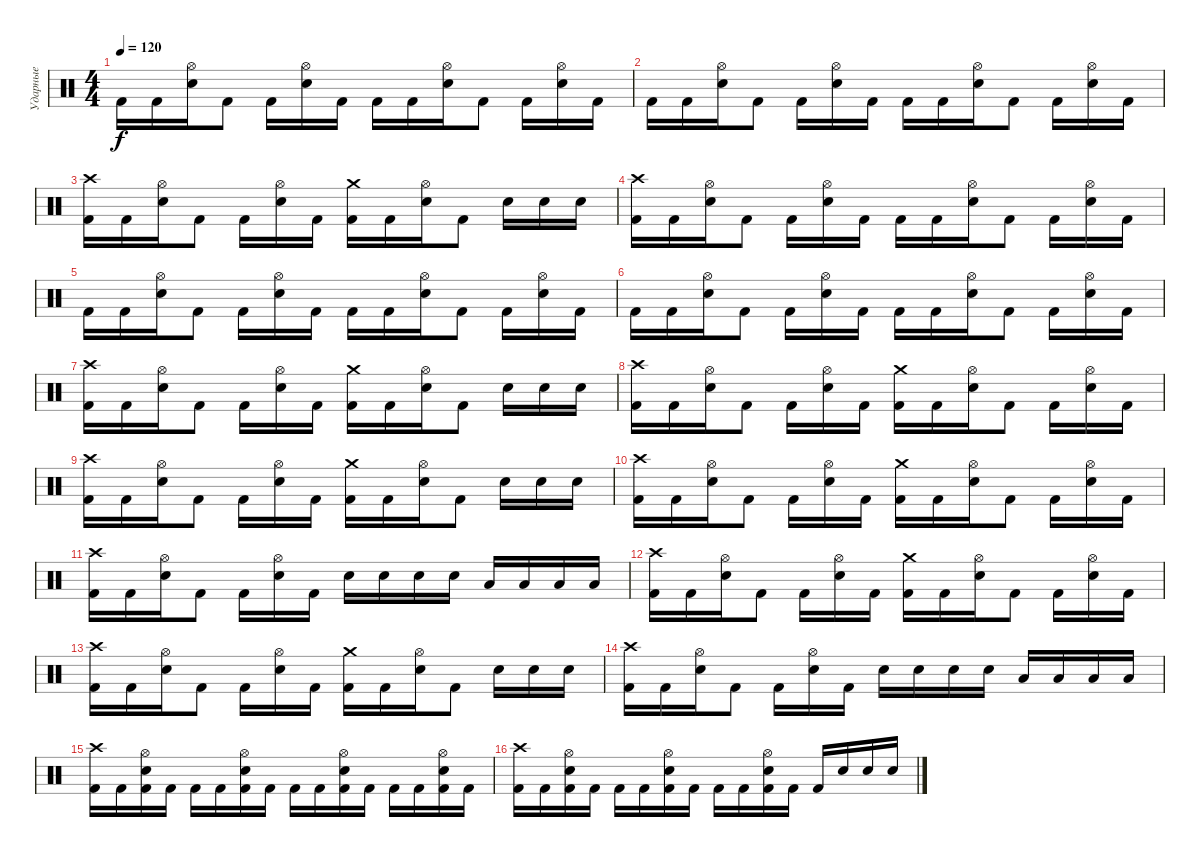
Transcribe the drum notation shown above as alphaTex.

\track ("Ударные" "Ударные") {instrument percussion}
\staff {score}
\articulation defaults
\ts (4 4)
\tempo 120
\clef neutral
\ks c "Kick (hit) 2".16{dy f} "Kick (hit) 2".16
("Electric Snare (hit)" "Hi-Hat (open)").16 "Kick (hit) 2".8 "Kick (hit) 2".16 ("Electric Snare (hit)" "Hi-Hat (open)").16 "Kick (hit) 2".16 "Kick (hit) 2".16 "Kick (hit) 2".16 ("Electric Snare (hit)" "Hi-Hat (open)").16 "Kick (hit) 2".8 "Kick (hit) 2".16 ("Electric Snare (hit)" "Hi-Hat (open)").16 "Kick (hit) 2".16 |
"Kick (hit) 2".16 "Kick (hit) 2".16 ("Electric Snare (hit)" "Hi-Hat (open)").16 "Kick (hit) 2".8 "Kick (hit) 2".16 ("Electric Snare (hit)" "Hi-Hat (open)").16 "Kick (hit) 2".16 "Kick (hit) 2".16 "Kick (hit) 2".16 ("Electric Snare (hit)" "Hi-Hat (open)").16 "Kick (hit) 2".8 "Kick (hit) 2".16 ("Electric Snare (hit)" "Hi-Hat (open)").16 "Kick (hit) 2".16 |
("Kick (hit) 2" "Crash high (hit)").16 "Kick (hit) 2".16 ("Electric Snare (hit)" "Hi-Hat (open)").16 "Kick (hit) 2".8 "Kick (hit) 2".16 ("Electric Snare (hit)" "Hi-Hat (open)").16 "Kick (hit) 2".16 ("Kick (hit) 2" "Crash medium (hit)").16 "Kick (hit) 2".16 ("Electric Snare (hit)" "Hi-Hat (open)").16 "Kick (hit) 2".8 "Electric Snare (hit)".16 "Electric Snare (hit)".16 "Electric Snare (hit)".16 |
("Kick (hit) 2" "Crash high (hit)").16 "Kick (hit) 2".16 ("Electric Snare (hit)" "Hi-Hat (open)").16 "Kick (hit) 2".8 "Kick (hit) 2".16 ("Electric Snare (hit)" "Hi-Hat (open)").16 "Kick (hit) 2".16 "Kick (hit) 2".16 "Kick (hit) 2".16 ("Electric Snare (hit)" "Hi-Hat (open)").16 "Kick (hit) 2".8 "Kick (hit) 2".16 ("Electric Snare (hit)" "Hi-Hat (open)").16 "Kick (hit) 2".16 |
"Kick (hit) 2".16 "Kick (hit) 2".16 ("Electric Snare (hit)" "Hi-Hat (open)").16 "Kick (hit) 2".8 "Kick (hit) 2".16 ("Electric Snare (hit)" "Hi-Hat (open)").16 "Kick (hit) 2".16 "Kick (hit) 2".16 "Kick (hit) 2".16 ("Electric Snare (hit)" "Hi-Hat (open)").16 "Kick (hit) 2".8 "Kick (hit) 2".16 ("Electric Snare (hit)" "Hi-Hat (open)").16 "Kick (hit) 2".16 |
"Kick (hit) 2".16 "Kick (hit) 2".16 ("Electric Snare (hit)" "Hi-Hat (open)").16 "Kick (hit) 2".8 "Kick (hit) 2".16 ("Electric Snare (hit)" "Hi-Hat (open)").16 "Kick (hit) 2".16 "Kick (hit) 2".16 "Kick (hit) 2".16 ("Electric Snare (hit)" "Hi-Hat (open)").16 "Kick (hit) 2".8 "Kick (hit) 2".16 ("Electric Snare (hit)" "Hi-Hat (open)").16 "Kick (hit) 2".16 |
("Kick (hit) 2" "Crash high (hit)").16 "Kick (hit) 2".16 ("Electric Snare (hit)" "Hi-Hat (open)").16 "Kick (hit) 2".8 "Kick (hit) 2".16 ("Electric Snare (hit)" "Hi-Hat (open)").16 "Kick (hit) 2".16 ("Kick (hit) 2" "Crash medium (hit)").16 "Kick (hit) 2".16 ("Electric Snare (hit)" "Hi-Hat (open)").16 "Kick (hit) 2".8 "Electric Snare (hit)".16 "Electric Snare (hit)".16 "Electric Snare (hit)".16 |
("Kick (hit) 2" "Crash high (hit)").16 "Kick (hit) 2".16 ("Electric Snare (hit)" "Hi-Hat (open)").16 "Kick (hit) 2".8 "Kick (hit) 2".16 ("Electric Snare (hit)" "Hi-Hat (open)").16 "Kick (hit) 2".16 ("Kick (hit) 2" "Crash medium (hit)").16 "Kick (hit) 2".16 ("Electric Snare (hit)" "Hi-Hat (open)").16 "Kick (hit) 2".8 "Kick (hit) 2".16 ("Electric Snare (hit)" "Hi-Hat (open)").16 "Kick (hit) 2".16 |
("Kick (hit) 2" "Crash high (hit)").16 "Kick (hit) 2".16 ("Electric Snare (hit)" "Hi-Hat (open)").16 "Kick (hit) 2".8 "Kick (hit) 2".16 ("Electric Snare (hit)" "Hi-Hat (open)").16 "Kick (hit) 2".16 ("Kick (hit) 2" "Crash medium (hit)").16 "Kick (hit) 2".16 ("Electric Snare (hit)" "Hi-Hat (open)").16 "Kick (hit) 2".8 "Electric Snare (hit)".16 "Electric Snare (hit)".16 "Electric Snare (hit)".16 |
("Kick (hit) 2" "Crash high (hit)").16 "Kick (hit) 2".16 ("Electric Snare (hit)" "Hi-Hat (open)").16 "Kick (hit) 2".8 "Kick (hit) 2".16 ("Electric Snare (hit)" "Hi-Hat (open)").16 "Kick (hit) 2".16 ("Kick (hit) 2" "Crash medium (hit)").16 "Kick (hit) 2".16 ("Electric Snare (hit)" "Hi-Hat (open)").16 "Kick (hit) 2".8 "Kick (hit) 2".16 ("Electric Snare (hit)" "Hi-Hat (open)").16 "Kick (hit) 2".16 |
("Kick (hit) 2" "Crash high (hit)").16 "Kick (hit) 2".16 ("Electric Snare (hit)" "Hi-Hat (open)").16 "Kick (hit) 2".8 "Kick (hit) 2".16 ("Electric Snare (hit)" "Hi-Hat (open)").16 "Kick (hit) 2".16 "Electric Snare (hit)".16 "Electric Snare (hit)".16 "Electric Snare (hit)".16 "Electric Snare (hit)".16 "Low Tom (hit)".16 "Low Tom (hit)".16 "Low Tom (hit)".16 "Low Tom (hit)".16 |
("Kick (hit) 2" "Crash high (hit)").16 "Kick (hit) 2".16 ("Electric Snare (hit)" "Hi-Hat (open)").16 "Kick (hit) 2".8 "Kick (hit) 2".16 ("Electric Snare (hit)" "Hi-Hat (open)").16 "Kick (hit) 2".16 ("Kick (hit) 2" "Crash medium (hit)").16 "Kick (hit) 2".16 ("Electric Snare (hit)" "Hi-Hat (open)").16 "Kick (hit) 2".8 "Kick (hit) 2".16 ("Electric Snare (hit)" "Hi-Hat (open)").16 "Kick (hit) 2".16 |
("Kick (hit) 2" "Crash high (hit)").16 "Kick (hit) 2".16 ("Electric Snare (hit)" "Hi-Hat (open)").16 "Kick (hit) 2".8 "Kick (hit) 2".16 ("Electric Snare (hit)" "Hi-Hat (open)").16 "Kick (hit) 2".16 ("Kick (hit) 2" "Crash medium (hit)").16 "Kick (hit) 2".16 ("Electric Snare (hit)" "Hi-Hat (open)").16 "Kick (hit) 2".8 "Electric Snare (hit)".16 "Electric Snare (hit)".16 "Electric Snare (hit)".16 |
("Kick (hit) 2" "Crash high (hit)").16 "Kick (hit) 2".16 ("Electric Snare (hit)" "Hi-Hat (open)").16 "Kick (hit) 2".8 "Kick (hit) 2".16 ("Electric Snare (hit)" "Hi-Hat (open)").16 "Kick (hit) 2".16 "Electric Snare (hit)".16 "Electric Snare (hit)".16 "Electric Snare (hit)".16 "Electric Snare (hit)".16 "Low Tom (hit)".16 "Low Tom (hit)".16 "Low Tom (hit)".16 "Low Tom (hit)".16 |
("Kick (hit) 2" "Crash high (hit)").16 "Kick (hit) 2".16 ("Kick (hit) 2" "Electric Snare (hit)" "Hi-Hat (open)").16 "Kick (hit) 2".16 "Kick (hit) 2".16 "Kick (hit) 2".16 ("Kick (hit) 2" "Electric Snare (hit)" "Hi-Hat (open)").16 "Kick (hit) 2".16 "Kick (hit) 2".16 "Kick (hit) 2".16 ("Kick (hit) 2" "Electric Snare (hit)" "Hi-Hat (open)").16 "Kick (hit) 2".16 "Kick (hit) 2".16 "Kick (hit) 2".16 ("Kick (hit) 2" "Electric Snare (hit)" "Hi-Hat (open)").16 "Kick (hit) 2".16 |
("Kick (hit) 2" "Crash high (hit)").16 "Kick (hit) 2".16 ("Kick (hit) 2" "Electric Snare (hit)" "Hi-Hat (open)").16 "Kick (hit) 2".16 "Kick (hit) 2".16 "Kick (hit) 2".16 ("Kick (hit) 2" "Electric Snare (hit)" "Hi-Hat (open)").16 "Kick (hit) 2".16 "Kick (hit) 2".16 "Kick (hit) 2".16 ("Kick (hit) 2" "Electric Snare (hit)" "Hi-Hat (open)").16 "Kick (hit) 2".16 "Kick (hit) 2".16 "Electric Snare (hit)".16 "Electric Snare (hit)".16 "Electric Snare (hit)".16
